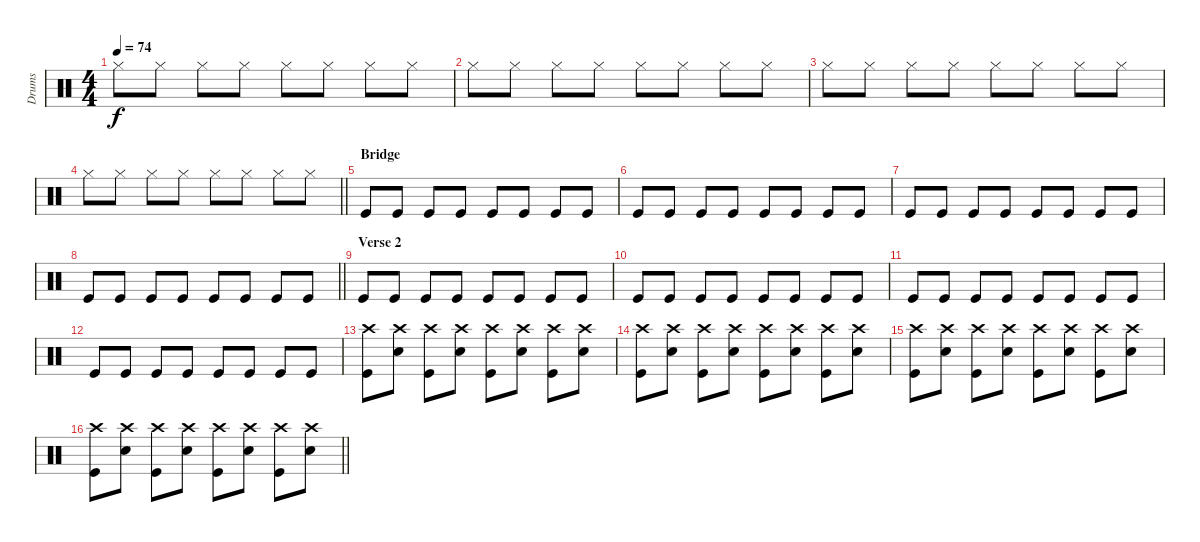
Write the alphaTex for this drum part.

\track ("Drums" "Drums") {instrument percussion}
\staff {score}
\articulation defaults
\ts (4 4)
\tempo 74
\clef neutral
\ks c "Hi-Hat (closed)".8{dy f} "Hi-Hat (closed)".8 "Hi-Hat (closed)".8 "Hi-Hat (closed)".8 "Hi-Hat (closed)".8 "Hi-Hat (closed)".8 "Hi-Hat (closed)".8 "Hi-Hat (closed)".8
|
"Hi-Hat (closed)".8 "Hi-Hat (closed)".8 "Hi-Hat (closed)".8 "Hi-Hat (closed)".8 "Hi-Hat (closed)".8 "Hi-Hat (closed)".8 "Hi-Hat (closed)".8 "Hi-Hat (closed)".8 |
"Hi-Hat (closed)".8 "Hi-Hat (closed)".8 "Hi-Hat (closed)".8 "Hi-Hat (closed)".8 "Hi-Hat (closed)".8 "Hi-Hat (closed)".8 "Hi-Hat (closed)".8 "Hi-Hat (closed)".8 |
\barLineRight lightlight "Hi-Hat (closed)".8 "Hi-Hat (closed)".8 "Hi-Hat (closed)".8 "Hi-Hat (closed)".8 "Hi-Hat (closed)".8 "Hi-Hat (closed)".8 "Hi-Hat (closed)".8 "Hi-Hat (closed)".8
|
\section ("" "Bridge")
"Kick (hit)".8 "Kick (hit)".8 "Kick (hit)".8 "Kick (hit)".8 "Kick (hit)".8 "Kick (hit)".8 "Kick (hit)".8 "Kick (hit)".8 |
"Kick (hit)".8 "Kick (hit)".8 "Kick (hit)".8 "Kick (hit)".8 "Kick (hit)".8 "Kick (hit)".8 "Kick (hit)".8 "Kick (hit)".8 |
"Kick (hit)".8 "Kick (hit)".8 "Kick (hit)".8 "Kick (hit)".8 "Kick (hit)".8 "Kick (hit)".8 "Kick (hit)".8 "Kick (hit)".8 |
\barLineRight lightlight "Kick (hit)".8 "Kick (hit)".8 "Kick (hit)".8 "Kick (hit)".8 "Kick (hit)".8 "Kick (hit)".8 "Kick (hit)".8 "Kick (hit)".8
|
\section ("" "Verse 2")
"Kick (hit)".8 "Kick (hit)".8 "Kick (hit)".8 "Kick (hit)".8 "Kick (hit)".8 "Kick (hit)".8 "Kick (hit)".8 "Kick (hit)".8 |
"Kick (hit)".8 "Kick (hit)".8 "Kick (hit)".8 "Kick (hit)".8 "Kick (hit)".8 "Kick (hit)".8 "Kick (hit)".8 "Kick (hit)".8 |
"Kick (hit)".8 "Kick (hit)".8 "Kick (hit)".8 "Kick (hit)".8 "Kick (hit)".8 "Kick (hit)".8 "Kick (hit)".8 "Kick (hit)".8 |
"Kick (hit)".8 "Kick (hit)".8 "Kick (hit)".8 "Kick (hit)".8 "Kick (hit)".8 "Kick (hit)".8 "Kick (hit)".8 "Kick (hit)".8 |
("Crash high (hit)" "Kick (hit)").8 ("Crash high (hit)" "Snare (hit) 2").8 ("Crash high (hit)" "Kick (hit)").8 ("Crash high (hit)" "Snare (hit) 2").8 ("Crash high (hit)" "Kick (hit)").8 ("Crash high (hit)" "Snare (hit) 2").8 ("Crash high (hit)" "Kick (hit)").8 ("Crash high (hit)" "Snare (hit) 2").8 |
("Crash high (hit)" "Kick (hit)").8 ("Crash high (hit)" "Snare (hit) 2").8 ("Crash high (hit)" "Kick (hit)").8 ("Crash high (hit)" "Snare (hit) 2").8 ("Crash high (hit)" "Kick (hit)").8 ("Crash high (hit)" "Snare (hit) 2").8 ("Crash high (hit)" "Kick (hit)").8 ("Crash high (hit)" "Snare (hit) 2").8 |
("Crash high (hit)" "Kick (hit)").8 ("Crash high (hit)" "Snare (hit) 2").8 ("Crash high (hit)" "Kick (hit)").8 ("Crash high (hit)" "Snare (hit) 2").8 ("Crash high (hit)" "Kick (hit)").8 ("Crash high (hit)" "Snare (hit) 2").8 ("Crash high (hit)" "Kick (hit)").8 ("Crash high (hit)" "Snare (hit) 2").8 |
\barLineRight lightlight
("Crash high (hit)" "Kick (hit)").8 ("Crash high (hit)" "Snare (hit) 2").8 ("Crash high (hit)" "Kick (hit)").8 ("Crash high (hit)" "Snare (hit) 2").8 ("Crash high (hit)" "Kick (hit)").8 ("Crash high (hit)" "Snare (hit) 2").8 ("Crash high (hit)" "Kick (hit)").8 ("Crash high (hit)" "Snare (hit) 2").8
